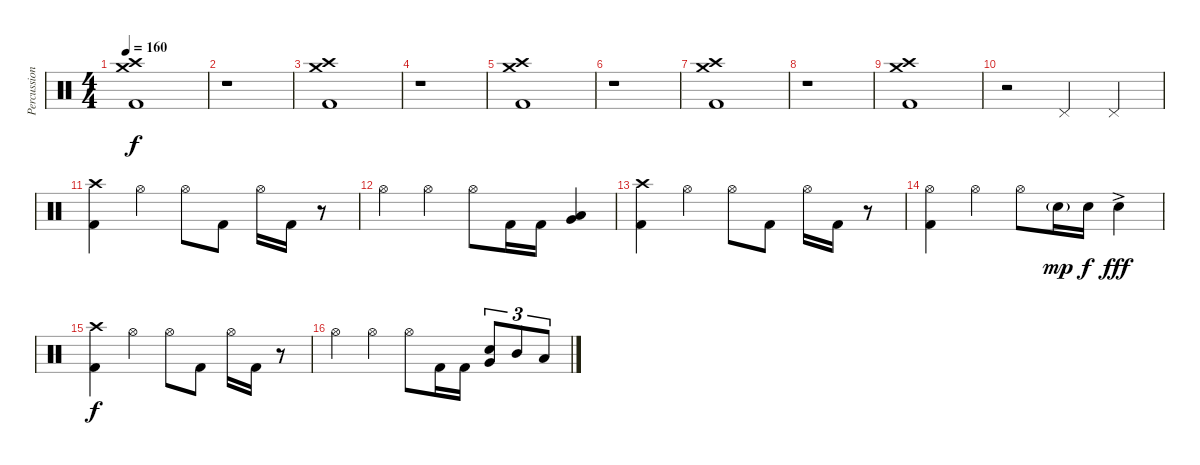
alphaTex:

\track ("Percussion" "Percussion") {instrument percussion}
\staff {score}
\articulation defaults
\ts (4 4)
\tempo 160
\clef neutral
\ks c
("Crash medium (hit)" "Crash high (hit)" "Kick (hit) 2").1{dy f} |
r.1 |
("Crash medium (hit)" "Crash high (hit)" "Kick (hit) 2").1 |
r.1 |
("Crash medium (hit)" "Crash high (hit)" "Kick (hit) 2").1 |
r.1 |
("Crash medium (hit)" "Crash high (hit)" "Kick (hit) 2").1 |
r.1 |
("Crash medium (hit)" "Crash high (hit)" "Kick (hit) 2").1 |
r.2 "Pedal Hi-Hat (hit)".4 "Pedal Hi-Hat (hit)".4 |
("Crash high (hit)" "Kick (hit) 2").4 "Hi-Hat (open)".4 "Hi-Hat (open)".8 "Kick (hit) 2".8 "Hi-Hat (open)".16 "Kick (hit) 2".16 r.8 |
"Hi-Hat (open)".4 "Hi-Hat (open)".4 "Hi-Hat (open)".8 "Kick (hit) 2".16 "Kick (hit) 2".16 ("Very Low Tom (hit)" "Low Floor Tom (hit)").4 |
("Crash high (hit)" "Kick (hit) 2").4 "Hi-Hat (open)".4 "Hi-Hat (open)".8 "Kick (hit) 2".8 "Hi-Hat (open)".16 "Kick (hit) 2".16 r.8 |
("Hi-Hat (open)" "Kick (hit) 2").4 "Hi-Hat (open)".4 "Hi-Hat (open)".8 "Electric Snare (hit)"{g}.16{dy mp} "Electric Snare (hit)".16{dy f} "Electric Snare (hit)"{ac}.4{dy fff} |
("Crash high (hit)" "Kick (hit) 2").4{dy f} "Hi-Hat (open)".4 "Hi-Hat (open)".8 "Kick (hit) 2".8 "Hi-Hat (open)".16 "Kick (hit) 2".16 r.8 |
"Hi-Hat (open)".4 "Hi-Hat (open)".4 "Hi-Hat (open)".8 "Kick (hit) 2".16 "Kick (hit) 2".16 ("Electric Snare (hit)" "Very Low Tom (hit)").8{tu (3 2)} "Mid Tom (hit)".8{tu (3 2)} "Low Tom (hit)".8{tu (3 2)}
